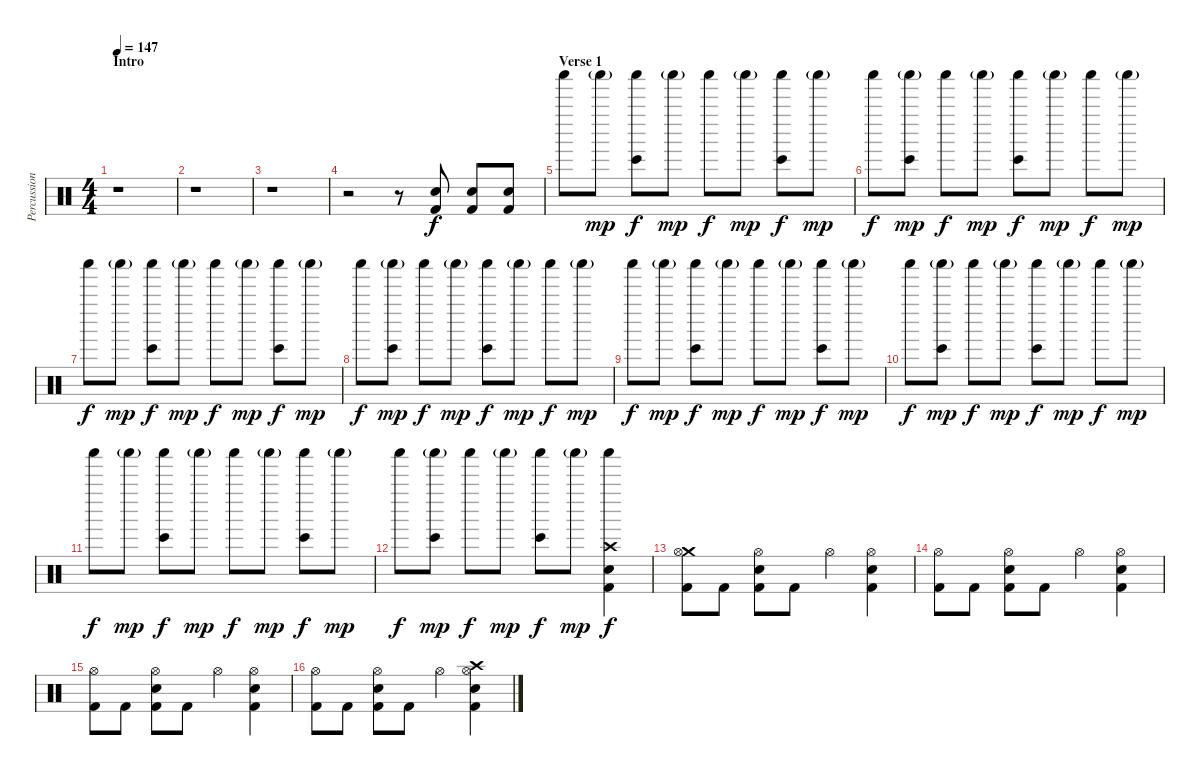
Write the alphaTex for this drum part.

\track ("Percussions" "Percussion") {instrument percussion}
\staff {score}
\articulation defaults
\ts (4 4)
\section ("" "Intro")
\tempo 147
\clef neutral
\ks c
r.1{dy f} |
r.1 |
r.1 |
r.2 r.8 ("Electric Snare (hit)" "Kick (hit) 2").8 ("Electric Snare (hit)" "Kick (hit) 2").8 ("Electric Snare (hit)" "Kick (hit) 2").8 |
\section ("" "Verse 1")
"Shaker (hit)".8 "Shaker (hit)"{g}.8{dy mp} ("Shaker (hit)" "Bongo High (hit)").8{dy f} "Shaker (hit)"{g}.8{dy mp} "Shaker (hit)".8{dy f} "Shaker (hit)"{g}.8{dy mp} ("Shaker (hit)" "Bongo High (hit)").8{dy f} "Shaker (hit)"{g}.8{dy mp} |
"Shaker (hit)".8{dy f} ("Shaker (hit)"{g} "Bongo High (hit)").8{dy mp} "Shaker (hit)".8{dy f} "Shaker (hit)"{g}.8{dy mp} ("Shaker (hit)" "Bongo High (hit)").8{dy f} "Shaker (hit)"{g}.8{dy mp} "Shaker (hit)".8{dy f} "Shaker (hit)"{g}.8{dy mp} |
"Shaker (hit)".8{dy f} "Shaker (hit)"{g}.8{dy mp} ("Shaker (hit)" "Bongo High (hit)").8{dy f} "Shaker (hit)"{g}.8{dy mp} "Shaker (hit)".8{dy f} "Shaker (hit)"{g}.8{dy mp} ("Shaker (hit)" "Bongo High (hit)").8{dy f} "Shaker (hit)"{g}.8{dy mp} |
"Shaker (hit)".8{dy f} ("Shaker (hit)"{g} "Bongo High (hit)").8{dy mp} "Shaker (hit)".8{dy f} "Shaker (hit)"{g}.8{dy mp} ("Shaker (hit)" "Bongo High (hit)").8{dy f} "Shaker (hit)"{g}.8{dy mp} "Shaker (hit)".8{dy f} "Shaker (hit)"{g}.8{dy mp} |
"Shaker (hit)".8{dy f} "Shaker (hit)"{g}.8{dy mp} ("Shaker (hit)" "Bongo High (hit)").8{dy f} "Shaker (hit)"{g}.8{dy mp} "Shaker (hit)".8{dy f} "Shaker (hit)"{g}.8{dy mp} ("Shaker (hit)" "Bongo High (hit)").8{dy f} "Shaker (hit)"{g}.8{dy mp} |
"Shaker (hit)".8{dy f} ("Shaker (hit)"{g} "Bongo High (hit)").8{dy mp} "Shaker (hit)".8{dy f} "Shaker (hit)"{g}.8{dy mp} ("Shaker (hit)" "Bongo High (hit)").8{dy f} "Shaker (hit)"{g}.8{dy mp} "Shaker (hit)".8{dy f} "Shaker (hit)"{g}.8{dy mp} |
"Shaker (hit)".8{dy f} "Shaker (hit)"{g}.8{dy mp} ("Shaker (hit)" "Bongo High (hit)").8{dy f} "Shaker (hit)"{g}.8{dy mp} "Shaker (hit)".8{dy f} "Shaker (hit)"{g}.8{dy mp} ("Shaker (hit)" "Bongo High (hit)").8{dy f} "Shaker (hit)"{g}.8{dy mp} |
"Shaker (hit)".8{dy f} ("Shaker (hit)"{g} "Bongo High (hit)").8{dy mp} "Shaker (hit)".8{dy f} "Shaker (hit)"{g}.8{dy mp} ("Shaker (hit)" "Bongo High (hit)").8{dy f} "Shaker (hit)"{g}.8{dy mp} ("Crash high (hit)" "Shaker (hit)" "Electric Snare (hit)" "Kick (hit) 2").4{dy f} |
("Crash medium (hit)" "Hi-Hat (open)" "Kick (hit) 2").8 "Kick (hit) 2".8 ("Hi-Hat (open)" "Electric Snare (hit)" "Kick (hit) 2").8 "Kick (hit) 2".8 "Hi-Hat (open)".4 ("Hi-Hat (open)" "Electric Snare (hit)" "Kick (hit) 2").4 |
("Hi-Hat (open)" "Kick (hit) 2").8 "Kick (hit) 2".8 ("Hi-Hat (open)" "Electric Snare (hit)" "Kick (hit) 2").8 "Kick (hit) 2".8 "Hi-Hat (open)".4 ("Hi-Hat (open)" "Electric Snare (hit)" "Kick (hit) 2").4 |
("Hi-Hat (open)" "Kick (hit) 2").8 "Kick (hit) 2".8 ("Hi-Hat (open)" "Electric Snare (hit)" "Kick (hit) 2").8 "Kick (hit) 2".8 "Hi-Hat (open)".4 ("Hi-Hat (open)" "Electric Snare (hit)" "Kick (hit) 2").4 |
("Hi-Hat (open)" "Kick (hit) 2").8 "Kick (hit) 2".8 ("Hi-Hat (open)" "Electric Snare (hit)" "Kick (hit) 2").8 "Kick (hit) 2".8 "Hi-Hat (open)".4 ("Crash high (hit)" "Hi-Hat (open)" "Electric Snare (hit)" "Kick (hit) 2").4
